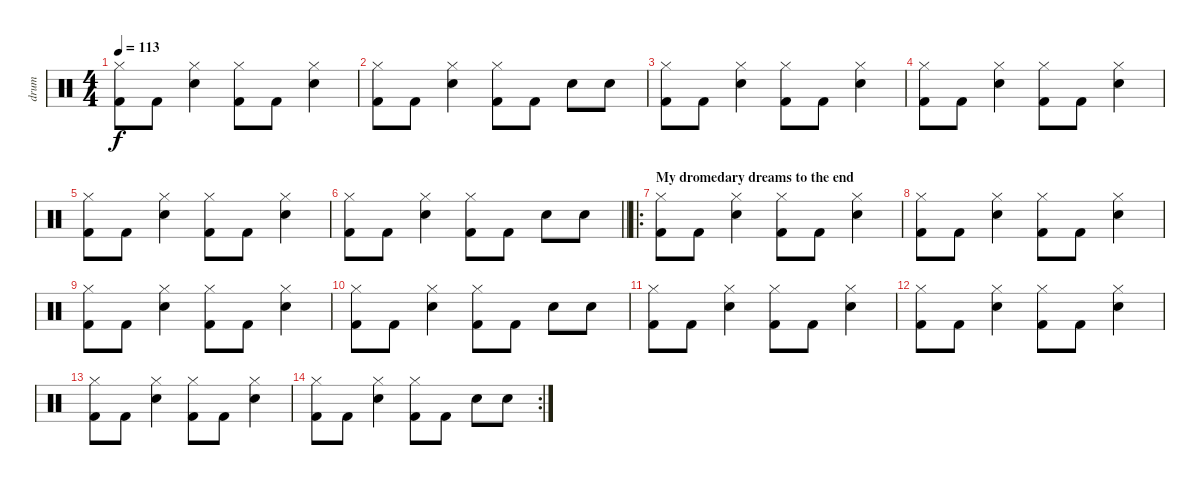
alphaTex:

\track ("drum" "drum") {instrument percussion}
\staff {score}
\articulation defaults
\ts (4 4)
\tempo 113
\clef neutral
\ks c
("Kick (hit) 2" "Hi-Hat (closed)").8{dy f} "Kick (hit) 2".8 ("Electric Snare (hit)" "Hi-Hat (closed)").4 ("Kick (hit) 2" "Hi-Hat (closed)").8 "Kick (hit) 2".8 ("Electric Snare (hit)" "Hi-Hat (closed)").4 |
("Kick (hit) 2" "Hi-Hat (closed)").8 "Kick (hit) 2".8 ("Electric Snare (hit)" "Hi-Hat (closed)").4 ("Kick (hit) 2" "Hi-Hat (closed)").8 "Kick (hit) 2".8 "Electric Snare (hit)".8 "Electric Snare (hit)".8 |
("Kick (hit) 2" "Hi-Hat (closed)").8 "Kick (hit) 2".8 ("Electric Snare (hit)" "Hi-Hat (closed)").4 ("Kick (hit) 2" "Hi-Hat (closed)").8 "Kick (hit) 2".8 ("Electric Snare (hit)" "Hi-Hat (closed)").4 |
("Kick (hit) 2" "Hi-Hat (closed)").8 "Kick (hit) 2".8 ("Electric Snare (hit)" "Hi-Hat (closed)").4 ("Kick (hit) 2" "Hi-Hat (closed)").8 "Kick (hit) 2".8 ("Electric Snare (hit)" "Hi-Hat (closed)").4 |
("Kick (hit) 2" "Hi-Hat (closed)").8 "Kick (hit) 2".8 ("Electric Snare (hit)" "Hi-Hat (closed)").4 ("Kick (hit) 2" "Hi-Hat (closed)").8 "Kick (hit) 2".8 ("Electric Snare (hit)" "Hi-Hat (closed)").4 |
\barLineRight lightlight
("Kick (hit) 2" "Hi-Hat (closed)").8 "Kick (hit) 2".8 ("Electric Snare (hit)" "Hi-Hat (closed)").4 ("Kick (hit) 2" "Hi-Hat (closed)").8 "Kick (hit) 2".8 "Electric Snare (hit)".8 "Electric Snare (hit)".8 |
\ro
\section ("" "My dromedary dreams to the end")
("Kick (hit) 2" "Hi-Hat (closed)").8 "Kick (hit) 2".8 ("Electric Snare (hit)" "Hi-Hat (closed)").4 ("Kick (hit) 2" "Hi-Hat (closed)").8 "Kick (hit) 2".8 ("Electric Snare (hit)" "Hi-Hat (closed)").4 |
("Kick (hit) 2" "Hi-Hat (closed)").8 "Kick (hit) 2".8 ("Electric Snare (hit)" "Hi-Hat (closed)").4 ("Kick (hit) 2" "Hi-Hat (closed)").8 "Kick (hit) 2".8 ("Electric Snare (hit)" "Hi-Hat (closed)").4 |
("Kick (hit) 2" "Hi-Hat (closed)").8 "Kick (hit) 2".8 ("Electric Snare (hit)" "Hi-Hat (closed)").4 ("Kick (hit) 2" "Hi-Hat (closed)").8 "Kick (hit) 2".8 ("Electric Snare (hit)" "Hi-Hat (closed)").4 |
("Kick (hit) 2" "Hi-Hat (closed)").8 "Kick (hit) 2".8 ("Electric Snare (hit)" "Hi-Hat (closed)").4 ("Kick (hit) 2" "Hi-Hat (closed)").8 "Kick (hit) 2".8 "Electric Snare (hit)".8 "Electric Snare (hit)".8 |
("Kick (hit) 2" "Hi-Hat (closed)").8 "Kick (hit) 2".8 ("Electric Snare (hit)" "Hi-Hat (closed)").4 ("Kick (hit) 2" "Hi-Hat (closed)").8 "Kick (hit) 2".8 ("Electric Snare (hit)" "Hi-Hat (closed)").4 |
("Kick (hit) 2" "Hi-Hat (closed)").8 "Kick (hit) 2".8 ("Electric Snare (hit)" "Hi-Hat (closed)").4 ("Kick (hit) 2" "Hi-Hat (closed)").8 "Kick (hit) 2".8 ("Electric Snare (hit)" "Hi-Hat (closed)").4 |
("Kick (hit) 2" "Hi-Hat (closed)").8 "Kick (hit) 2".8 ("Electric Snare (hit)" "Hi-Hat (closed)").4 ("Kick (hit) 2" "Hi-Hat (closed)").8 "Kick (hit) 2".8 ("Electric Snare (hit)" "Hi-Hat (closed)").4 |
\rc 2
("Kick (hit) 2" "Hi-Hat (closed)").8 "Kick (hit) 2".8 ("Electric Snare (hit)" "Hi-Hat (closed)").4 ("Kick (hit) 2" "Hi-Hat (closed)").8 "Kick (hit) 2".8 "Electric Snare (hit)".8 "Electric Snare (hit)".8
